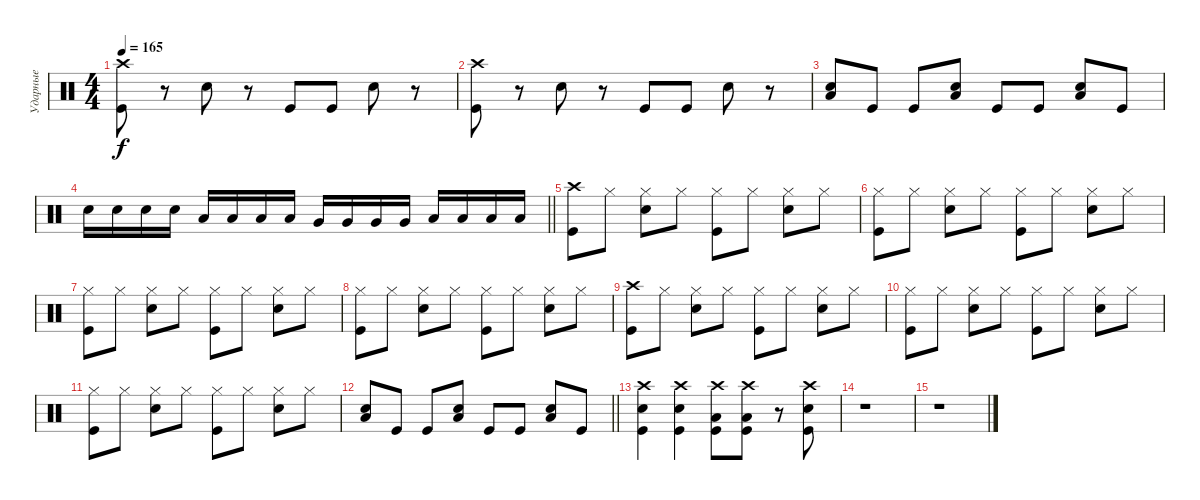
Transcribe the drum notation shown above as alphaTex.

\track ("Ударные" "Ударные") {instrument percussion}
\staff {score}
\articulation defaults
\ts (4 4)
\tempo 165
\clef neutral
\ks c
("Crash high (hit)" "Kick (hit)").8{dy f} r.8 "Snare (hit) 2".8 r.8 "Kick (hit)".8 "Kick (hit)".8 "Snare (hit) 2".8 r.8 |
("Crash high (hit)" "Kick (hit)").8 r.8 "Snare (hit) 2".8 r.8 "Kick (hit)".8 "Kick (hit)".8 "Snare (hit) 2".8 r.8 |
("Snare (hit) 2" "Low Floor Tom (hit)").8 "Kick (hit)".8 "Kick (hit)".8 ("Snare (hit) 2" "Low Floor Tom (hit)").8 "Kick (hit)".8 "Kick (hit)".8 ("Snare (hit) 2" "Low Floor Tom (hit)").8 "Kick (hit)".8 |
\barLineRight lightlight "Snare (hit) 2".16 "Snare (hit) 2".16 "Snare (hit) 2".16 "Snare (hit) 2".16 "Low Tom (hit)".16 "Low Tom (hit)".16 "Low Tom (hit)".16 "Low Tom (hit)".16 "Very Low Tom (hit)".16 "Very Low Tom (hit)".16 "Very Low Tom (hit)".16 "Very Low Tom (hit)".16 "Low Floor Tom (hit)".16 "Low Floor Tom (hit)".16 "Low Floor Tom (hit)".16 "Low Floor Tom (hit)".16
|
("Crash high (hit)" "Kick (hit)").8 "Hi-Hat (closed)".8 ("Hi-Hat (closed)" "Snare (hit) 2").8 "Hi-Hat (closed)".8 ("Hi-Hat (closed)" "Kick (hit)").8 "Hi-Hat (closed)".8 ("Hi-Hat (closed)" "Snare (hit) 2").8 "Hi-Hat (closed)".8 |
("Hi-Hat (closed)" "Kick (hit)").8 "Hi-Hat (closed)".8 ("Hi-Hat (closed)" "Snare (hit) 2").8 "Hi-Hat (closed)".8 ("Hi-Hat (closed)" "Kick (hit)").8 "Hi-Hat (closed)".8 ("Hi-Hat (closed)" "Snare (hit) 2").8 "Hi-Hat (closed)".8 |
("Hi-Hat (closed)" "Kick (hit)").8 "Hi-Hat (closed)".8 ("Hi-Hat (closed)" "Snare (hit) 2").8 "Hi-Hat (closed)".8 ("Hi-Hat (closed)" "Kick (hit)").8 "Hi-Hat (closed)".8 ("Hi-Hat (closed)" "Snare (hit) 2").8 "Hi-Hat (closed)".8 |
("Hi-Hat (closed)" "Kick (hit)").8 "Hi-Hat (closed)".8 ("Hi-Hat (closed)" "Snare (hit) 2").8 "Hi-Hat (closed)".8 ("Hi-Hat (closed)" "Kick (hit)").8 "Hi-Hat (closed)".8 ("Hi-Hat (closed)" "Snare (hit) 2").8 "Hi-Hat (closed)".8 |
("Crash high (hit)" "Kick (hit)").8 "Hi-Hat (closed)".8 ("Hi-Hat (closed)" "Snare (hit) 2").8 "Hi-Hat (closed)".8 ("Hi-Hat (closed)" "Kick (hit)").8 "Hi-Hat (closed)".8 ("Hi-Hat (closed)" "Snare (hit) 2").8 "Hi-Hat (closed)".8 |
("Hi-Hat (closed)" "Kick (hit)").8 "Hi-Hat (closed)".8 ("Hi-Hat (closed)" "Snare (hit) 2").8 "Hi-Hat (closed)".8 ("Hi-Hat (closed)" "Kick (hit)").8 "Hi-Hat (closed)".8 ("Hi-Hat (closed)" "Snare (hit) 2").8 "Hi-Hat (closed)".8 |
("Hi-Hat (closed)" "Kick (hit)").8 "Hi-Hat (closed)".8 ("Hi-Hat (closed)" "Snare (hit) 2").8 "Hi-Hat (closed)".8 ("Hi-Hat (closed)" "Kick (hit)").8 "Hi-Hat (closed)".8 ("Hi-Hat (closed)" "Snare (hit) 2").8 "Hi-Hat (closed)".8 |
\barLineRight lightlight
("Snare (hit) 2" "Low Floor Tom (hit)").8 "Kick (hit)".8 "Kick (hit)".8 ("Snare (hit) 2" "Low Floor Tom (hit)").8 "Kick (hit)".8 "Kick (hit)".8 ("Snare (hit) 2" "Low Floor Tom (hit)").8 "Kick (hit)".8 |
("Crash high (hit)" "Snare (hit) 2" "Kick (hit)").4 ("Crash high (hit)" "Snare (hit) 2" "Kick (hit)").4 ("Crash high (hit)" "Low Floor Tom (hit)" "Kick (hit)").8 ("Crash high (hit)" "Low Floor Tom (hit)" "Kick (hit)").8 r.8 ("Crash high (hit)" "Snare (hit) 2" "Kick (hit)").8 |
r.1 |
r.1
